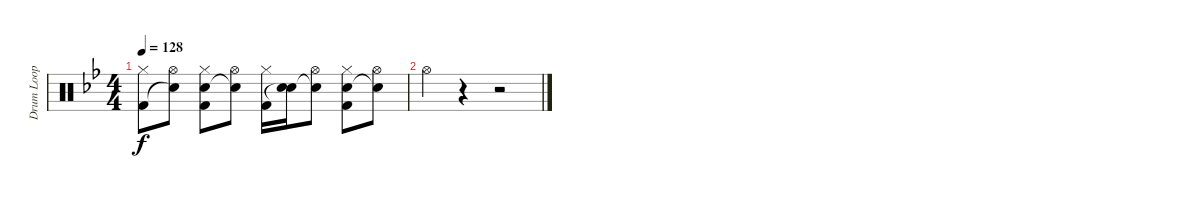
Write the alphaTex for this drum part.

\track ("Drum Loop" "Drum Loop") {instrument percussion}
\staff {score}
\articulation defaults
\ts (4 4)
\tempo 128
\clef neutral
\ks gminor
("Hi-Hat (closed)" "Kick (hit) 2").8{dy f} ("Hi-Hat (open)" "Snare (hit)"{t}).8 ("Hi-Hat (closed)" "Electric Snare (hit)" "Kick (hit) 2").8 ("Hi-Hat (open)" "Snare (hit)"{t}).8 ("Hi-Hat (closed)" "Kick (hit) 2").16 ("Electric Snare (hit)" "Snare (hit)"{t}).16 ("Hi-Hat (open)" "Snare (hit)"{t}).8 ("Hi-Hat (closed)" "Electric Snare (hit)" "Kick (hit) 2").8 ("Hi-Hat (open)" "Snare (hit)"{t}).8 |
"Hi-Hat (open)".4 r.4 r.2
